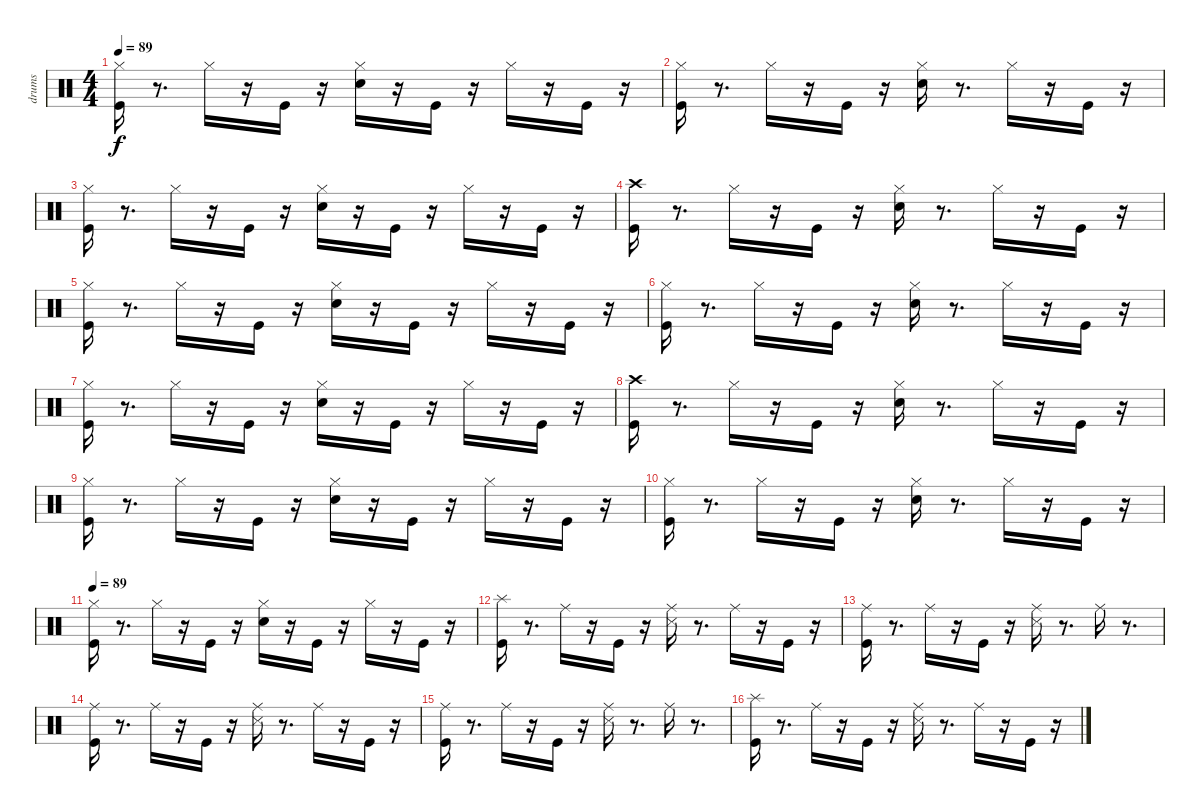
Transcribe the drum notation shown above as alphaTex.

\track ("drums" "drums") {instrument percussion}
\staff {score}
\articulation defaults
\ts (4 4)
\tempo 89
\clef neutral
\ks c
("Hi-Hat (closed)" "Kick (hit)").16{dy f} r.8{d} "Hi-Hat (closed)".16 r.16 "Kick (hit)".16 r.16 ("Hi-Hat (closed)" "Electric Snare (hit)").16 r.16 "Kick (hit)".16 r.16 "Hi-Hat (closed)".16 r.16 "Kick (hit)".16 r.16 |
("Hi-Hat (closed)" "Kick (hit)").16 r.8{d} "Hi-Hat (closed)".16 r.16 "Kick (hit)".16 r.16 ("Hi-Hat (closed)" "Electric Snare (hit)").16 r.8{d} "Hi-Hat (closed)".16 r.16 "Kick (hit)".16 r.16 |
("Hi-Hat (closed)" "Kick (hit)").16 r.8{d} "Hi-Hat (closed)".16 r.16 "Kick (hit)".16 r.16 ("Hi-Hat (closed)" "Electric Snare (hit)").16 r.16 "Kick (hit)".16 r.16 "Hi-Hat (closed)".16 r.16 "Kick (hit)".16 r.16 |
("Crash high (hit)" "Kick (hit)").16 r.8{d} "Hi-Hat (closed)".16 r.16 "Kick (hit)".16 r.16 ("Hi-Hat (closed)" "Electric Snare (hit)").16 r.8{d} "Hi-Hat (closed)".16 r.16 "Kick (hit)".16 r.16 |
("Hi-Hat (closed)" "Kick (hit)").16 r.8{d} "Hi-Hat (closed)".16 r.16 "Kick (hit)".16 r.16 ("Hi-Hat (closed)" "Electric Snare (hit)").16 r.16 "Kick (hit)".16 r.16 "Hi-Hat (closed)".16 r.16 "Kick (hit)".16 r.16 |
("Hi-Hat (closed)" "Kick (hit)").16 r.8{d} "Hi-Hat (closed)".16 r.16 "Kick (hit)".16 r.16 ("Hi-Hat (closed)" "Electric Snare (hit)").16 r.8{d} "Hi-Hat (closed)".16 r.16 "Kick (hit)".16 r.16 |
("Hi-Hat (closed)" "Kick (hit)").16 r.8{d} "Hi-Hat (closed)".16 r.16 "Kick (hit)".16 r.16 ("Hi-Hat (closed)" "Electric Snare (hit)").16 r.16 "Kick (hit)".16 r.16 "Hi-Hat (closed)".16 r.16 "Kick (hit)".16 r.16 |
("Crash high (hit)" "Kick (hit)").16 r.8{d} "Hi-Hat (closed)".16 r.16 "Kick (hit)".16 r.16 ("Hi-Hat (closed)" "Electric Snare (hit)").16 r.8{d} "Hi-Hat (closed)".16 r.16 "Kick (hit)".16 r.16 |
("Hi-Hat (closed)" "Kick (hit)").16 r.8{d} "Hi-Hat (closed)".16 r.16 "Kick (hit)".16 r.16 ("Hi-Hat (closed)" "Electric Snare (hit)").16 r.16 "Kick (hit)".16 r.16 "Hi-Hat (closed)".16 r.16 "Kick (hit)".16 r.16 |
("Hi-Hat (closed)" "Kick (hit)").16 r.8{d} "Hi-Hat (closed)".16 r.16 "Kick (hit)".16 r.16 ("Hi-Hat (closed)" "Electric Snare (hit)").16 r.8{d} "Hi-Hat (closed)".16 r.16 "Kick (hit)".16 r.16 |
\tempo 89
("Hi-Hat (closed)" "Kick (hit)").16 r.8{d} "Hi-Hat (closed)".16 r.16 "Kick (hit)".16 r.16 ("Hi-Hat (closed)" "Electric Snare (hit)").16 r.16 "Kick (hit)".16 r.16 "Hi-Hat (closed)".16 r.16 "Kick (hit)".16 r.16 |
("Splash (hit)" "Kick (hit)").16 r.8{d} "Ride (middle)".16 r.16 "Kick (hit)".16 r.16 ("Ride (middle)" "Snare (side stick) 3").16 r.8{d} "Ride (middle)".16 r.16 "Kick (hit)".16 r.16 |
("Ride (middle)" "Kick (hit)").16 r.8{d} "Ride (middle)".16 r.16 "Kick (hit)".16 r.16 ("Ride (middle)" "Snare (side stick) 3").16 r.8{d} "Ride (middle)".16 r.8{d} |
("Ride (middle)" "Kick (hit)").16 r.8{d} "Ride (middle)".16 r.16 "Kick (hit)".16 r.16 ("Snare (side stick) 3" "Ride (middle)").16 r.8{d} "Ride (middle)".16 r.16 "Kick (hit)".16 r.16 |
("Ride (middle)" "Kick (hit)").16 r.8{d} "Ride (middle)".16 r.16 "Kick (hit)".16 r.16 ("Ride (middle)" "Snare (side stick) 3").16 r.8{d} "Ride (middle)".16 r.8{d} |
("Splash (hit)" "Kick (hit)").16 r.8{d} "Ride (middle)".16 r.16 "Kick (hit)".16 r.16 ("Snare (side stick) 3" "Ride (middle)").16 r.8{d} "Ride (middle)".16 r.16 "Kick (hit)".16 r.16
